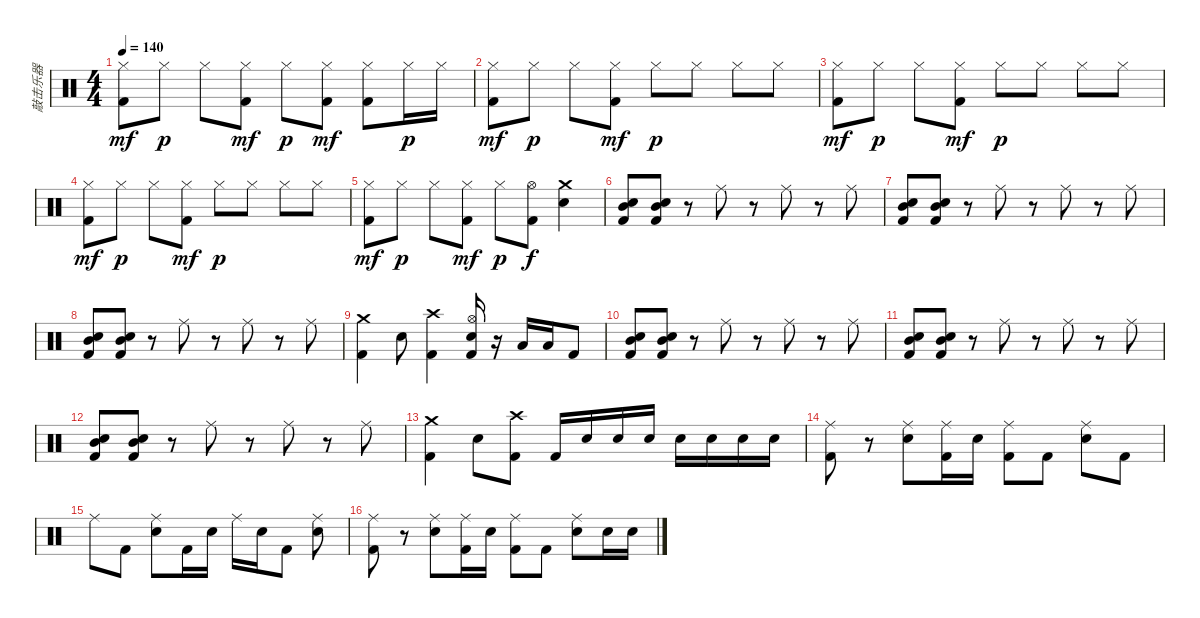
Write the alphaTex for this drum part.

\track ("敲击乐器" "敲击乐器") {instrument percussion}
\staff {score}
\articulation defaults
\ts (4 4)
\tempo 140
\clef neutral
\ks c
("Hi-Hat (closed)" "Kick (hit) 2").8{dy mf} "Hi-Hat (closed)".8{dy p} "Hi-Hat (closed)".8 ("Hi-Hat (closed)" "Kick (hit) 2").8{dy mf} "Hi-Hat (closed)".8{dy p} ("Hi-Hat (closed)" "Kick (hit) 2").8{dy mf} ("Hi-Hat (closed)" "Kick (hit) 2").8 "Hi-Hat (closed)".16{dy p} "Hi-Hat (closed)".16 |
("Hi-Hat (closed)" "Kick (hit) 2").8{dy mf} "Hi-Hat (closed)".8{dy p} "Hi-Hat (closed)".8 ("Hi-Hat (closed)" "Kick (hit) 2").8{dy mf} "Hi-Hat (closed)".8{dy p} "Hi-Hat (closed)".8 "Hi-Hat (closed)".8 "Hi-Hat (closed)".8 |
("Hi-Hat (closed)" "Kick (hit) 2").8{dy mf} "Hi-Hat (closed)".8{dy p} "Hi-Hat (closed)".8 ("Hi-Hat (closed)" "Kick (hit) 2").8{dy mf} "Hi-Hat (closed)".8{dy p} "Hi-Hat (closed)".8 "Hi-Hat (closed)".8 "Hi-Hat (closed)".8 |
("Hi-Hat (closed)" "Kick (hit) 2").8{dy mf} "Hi-Hat (closed)".8{dy p} "Hi-Hat (closed)".8 ("Hi-Hat (closed)" "Kick (hit) 2").8{dy mf} "Hi-Hat (closed)".8{dy p} "Hi-Hat (closed)".8 "Hi-Hat (closed)".8 "Hi-Hat (closed)".8 |
("Hi-Hat (closed)" "Kick (hit) 2").8{dy mf} "Hi-Hat (closed)".8{dy p} "Hi-Hat (closed)".8 ("Hi-Hat (closed)" "Kick (hit) 2").8{dy mf} "Hi-Hat (closed)".8{dy p} ("Hi-Hat (open)" "Kick (hit) 2").8{dy f} ("Crash medium (hit)" "Snare (hit) 2").4 |
("Snare (hit) 2" "Mid Tom (hit)" "Kick (hit) 2").8 ("Snare (hit) 2" "Mid Tom (hit)" "Kick (hit) 2").8 r.8 "Ride (middle)".8 r.8 "Ride (middle)".8 r.8 "Ride (middle)".8 |
("Snare (hit) 2" "Mid Tom (hit)" "Kick (hit) 2").8 ("Snare (hit) 2" "Mid Tom (hit)" "Kick (hit) 2").8 r.8 "Ride (middle)".8 r.8 "Ride (middle)".8 r.8 "Ride (middle)".8 |
("Snare (hit) 2" "Mid Tom (hit)" "Kick (hit) 2").8 ("Snare (hit) 2" "Mid Tom (hit)" "Kick (hit) 2").8 r.8 "Ride (middle)".8 r.8 "Ride (middle)".8 r.8 "Ride (middle)".8 |
("Crash medium (hit)" "Kick (hit) 2").4 "Snare (hit) 2".8 ("Crash high (hit)" "Kick (hit) 2").4 ("Hi-Hat (open)" "Snare (hit) 2" "Kick (hit) 2").16 r.16 "Low Tom (hit)".16 "Low Tom (hit)".16 "Kick (hit) 2".8 |
("Snare (hit) 2" "Mid Tom (hit)" "Kick (hit) 2").8 ("Snare (hit) 2" "Mid Tom (hit)" "Kick (hit) 2").8 r.8 "Ride (middle)".8 r.8 "Ride (middle)".8 r.8 "Ride (middle)".8 |
("Snare (hit) 2" "Mid Tom (hit)" "Kick (hit) 2").8 ("Snare (hit) 2" "Mid Tom (hit)" "Kick (hit) 2").8 r.8 "Ride (middle)".8 r.8 "Ride (middle)".8 r.8 "Ride (middle)".8 |
("Snare (hit) 2" "Mid Tom (hit)" "Kick (hit) 2").8 ("Snare (hit) 2" "Mid Tom (hit)" "Kick (hit) 2").8 r.8 "Ride (middle)".8 r.8 "Ride (middle)".8 r.8 "Ride (middle)".8 |
("Crash medium (hit)" "Kick (hit) 2").4 "Snare (hit) 2".8 ("Crash high (hit)" "Kick (hit) 2").8 "Kick (hit) 2".16 "Snare (hit) 2".16 "Snare (hit) 2".16 "Snare (hit) 2".16 "Snare (hit) 2".16 "Snare (hit) 2".16 "Snare (hit) 2".16 "Snare (hit) 2".16 |
("Ride (middle)" "Kick (hit) 2").8 r.8 ("Ride (middle)" "Snare (hit) 2").8 ("Ride (middle)" "Kick (hit) 2").16 "Snare (hit) 2".16 ("Ride (middle)" "Kick (hit) 2").8 "Kick (hit) 2".8 ("Ride (middle)" "Snare (hit) 2").8 "Kick (hit) 2".8 |
"Ride (middle)".8 "Kick (hit) 2".8 ("Ride (middle)" "Snare (hit) 2").8 "Kick (hit) 2".16 "Snare (hit) 2".16 "Ride (middle)".16 "Snare (hit) 2".16 "Kick (hit) 2".8 ("Ride (middle)" "Snare (hit) 2").8 |
("Ride (middle)" "Kick (hit) 2").8 r.8 ("Ride (middle)" "Snare (hit) 2").8 ("Ride (middle)" "Kick (hit) 2").16 "Snare (hit) 2".16 ("Ride (middle)" "Kick (hit) 2").8 "Kick (hit) 2".8 ("Ride (middle)" "Snare (hit) 2").8 "Snare (hit) 2".16 "Snare (hit) 2".16
